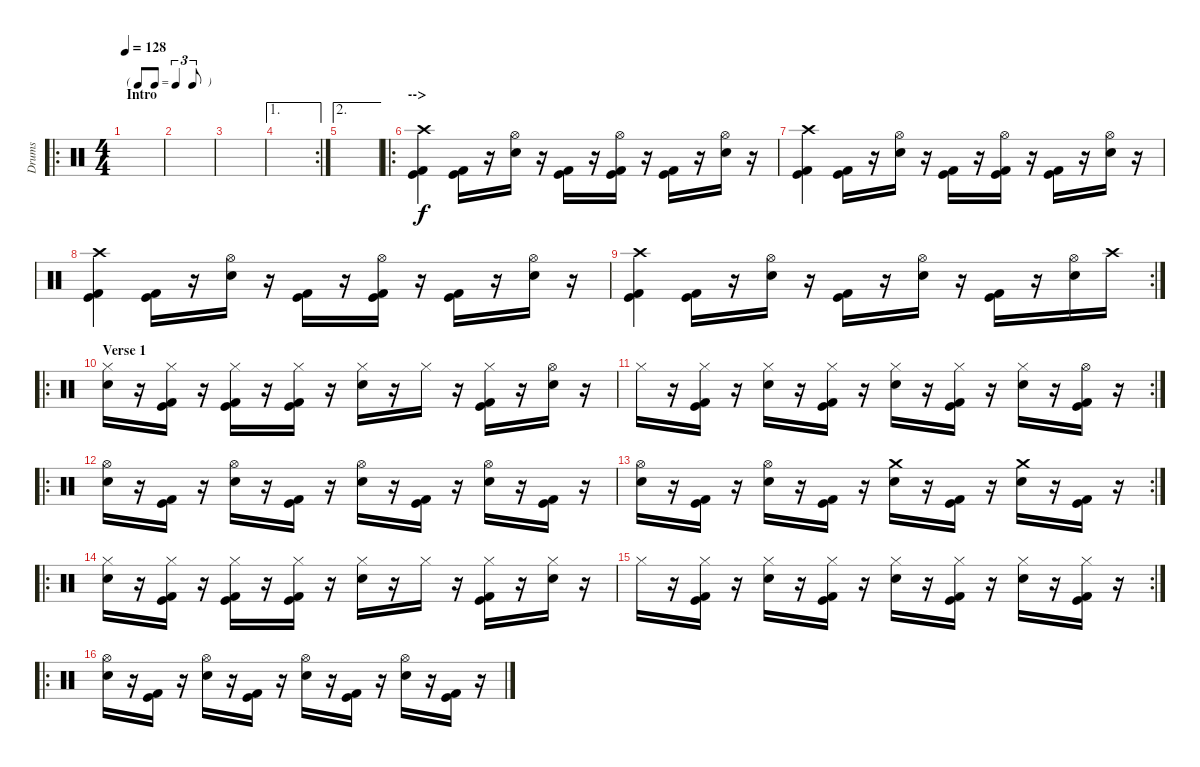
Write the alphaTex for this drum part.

\track ("Drums" "Drums") {instrument percussion}
\staff {score}
\articulation defaults
\ro
\ts (4 4)
\tf triplet8th
\section ("" "Intro")
\tempo 128
\clef neutral
\ks c
|
|
|
\ae 1
\rc 2
|
\ae 2
|
\ro
\section ("" "-->")
("Crash high (hit)" "Kick (hit)" "Kick (hit) 2").4 ("Kick (hit)" "Kick (hit) 2").16 r.16 ("Hi-Hat (open)" "Electric Snare (hit)").16 r.16 ("Kick (hit) 2" "Kick (hit)").16 r.16 ("Hi-Hat (open)" "Kick (hit)" "Kick (hit) 2").16 r.16 ("Kick (hit)" "Kick (hit) 2").16 r.16 ("Hi-Hat (open)" "Electric Snare (hit)").16 r.16 |
("Crash high (hit)" "Kick (hit)" "Kick (hit) 2").4 ("Kick (hit)" "Kick (hit) 2").16 r.16 ("Hi-Hat (open)" "Electric Snare (hit)").16 r.16 ("Kick (hit) 2" "Kick (hit)").16 r.16 ("Hi-Hat (open)" "Kick (hit)" "Kick (hit) 2").16 r.16 ("Kick (hit)" "Kick (hit) 2").16 r.16 ("Hi-Hat (open)" "Electric Snare (hit)").16 r.16 |
("Crash high (hit)" "Kick (hit)" "Kick (hit) 2").4 ("Kick (hit)" "Kick (hit) 2").16 r.16 ("Hi-Hat (open)" "Electric Snare (hit)").16 r.16 ("Kick (hit) 2" "Kick (hit)").16 r.16 ("Hi-Hat (open)" "Kick (hit)" "Kick (hit) 2").16 r.16 ("Kick (hit)" "Kick (hit) 2").16 r.16 ("Hi-Hat (open)" "Electric Snare (hit)").16 r.16 |
\rc 2
("Crash high (hit)" "Kick (hit)" "Kick (hit) 2").4 ("Kick (hit)" "Kick (hit) 2").16 r.16 ("Hi-Hat (open)" "Electric Snare (hit)").16 r.16 ("Kick (hit) 2" "Kick (hit)").16 r.16 ("Hi-Hat (open)" "Electric Snare (hit)").16 r.16 ("Kick (hit)" "Kick (hit) 2").16 r.16 ("Hi-Hat (open)" "Electric Snare (hit)").16 "Crash high (hit)".16 |
\ro
\section ("" "Verse 1")
("Hi-Hat (closed)" "Electric Snare (hit)").16 r.16 ("Hi-Hat (closed)" "Kick (hit) 2" "Kick (hit)").16 r.16 ("Hi-Hat (closed)" "Kick (hit)" "Kick (hit) 2").16 r.16 ("Hi-Hat (closed)" "Kick (hit)" "Kick (hit) 2").16 r.16 ("Hi-Hat (closed)" "Electric Snare (hit)").16 r.16 "Hi-Hat (closed)".16 r.16 ("Hi-Hat (closed)" "Kick (hit)" "Kick (hit) 2").16 r.16 ("Hi-Hat (open)" "Electric Snare (hit)").16 r.16 |
\rc 2 "Hi-Hat (closed)".16
r.16 ("Hi-Hat (closed)" "Kick (hit)" "Kick (hit) 2").16 r.16 ("Hi-Hat (closed)" "Electric Snare (hit)").16 r.16 ("Hi-Hat (closed)" "Kick (hit)" "Kick (hit) 2").16 r.16 ("Hi-Hat (closed)" "Electric Snare (hit)").16 r.16 ("Hi-Hat (closed)" "Kick (hit)" "Kick (hit) 2").16 r.16 ("Hi-Hat (closed)" "Electric Snare (hit)").16 r.16 ("Hi-Hat (open)" "Kick (hit)" "Kick (hit) 2").16 r.16 |
\ro
("Hi-Hat (open)" "Electric Snare (hit)").16 r.16 ("Kick (hit)" "Kick (hit) 2").16 r.16 ("Hi-Hat (open)" "Electric Snare (hit)").16 r.16 ("Kick (hit)" "Kick (hit) 2").16 r.16 ("Hi-Hat (open)" "Electric Snare (hit)").16 r.16 ("Kick (hit)" "Kick (hit) 2").16 r.16 ("Hi-Hat (open)" "Electric Snare (hit)").16 r.16 ("Kick (hit)" "Kick (hit) 2").16 r.16 |
\rc 2
("Hi-Hat (open)" "Electric Snare (hit)").16 r.16 ("Kick (hit)" "Kick (hit) 2").16 r.16 ("Hi-Hat (open)" "Electric Snare (hit)").16 r.16 ("Kick (hit)" "Kick (hit) 2").16 r.16 ("Crash medium (hit)" "Electric Snare (hit)").16 r.16 ("Kick (hit)" "Kick (hit) 2").16 r.16 ("Crash medium (hit)" "Electric Snare (hit)").16 r.16 ("Kick (hit)" "Kick (hit) 2").16 r.16 |
\ro
("Hi-Hat (closed)" "Electric Snare (hit)").16 r.16 ("Hi-Hat (closed)" "Kick (hit) 2" "Kick (hit)").16 r.16 ("Hi-Hat (closed)" "Kick (hit)" "Kick (hit) 2").16 r.16 ("Hi-Hat (closed)" "Kick (hit)" "Kick (hit) 2").16 r.16 ("Hi-Hat (closed)" "Electric Snare (hit)").16 r.16 "Hi-Hat (closed)".16 r.16 ("Hi-Hat (closed)" "Kick (hit)" "Kick (hit) 2").16 r.16 ("Hi-Hat (closed)" "Electric Snare (hit)").16 r.16 |
\rc 2 "Hi-Hat (closed)".16
r.16 ("Hi-Hat (closed)" "Kick (hit)" "Kick (hit) 2").16 r.16 ("Hi-Hat (closed)" "Electric Snare (hit)").16 r.16 ("Hi-Hat (closed)" "Kick (hit)" "Kick (hit) 2").16 r.16 ("Hi-Hat (closed)" "Electric Snare (hit)").16 r.16 ("Hi-Hat (closed)" "Kick (hit)" "Kick (hit) 2").16 r.16 ("Hi-Hat (closed)" "Electric Snare (hit)").16 r.16 ("Hi-Hat (closed)" "Kick (hit)" "Kick (hit) 2").16 r.16 |
\ro
("Hi-Hat (open)" "Electric Snare (hit)").16 r.16 ("Kick (hit)" "Kick (hit) 2").16 r.16 ("Hi-Hat (open)" "Electric Snare (hit)").16 r.16 ("Kick (hit)" "Kick (hit) 2").16 r.16 ("Hi-Hat (open)" "Electric Snare (hit)").16 r.16 ("Kick (hit)" "Kick (hit) 2").16 r.16 ("Hi-Hat (open)" "Electric Snare (hit)").16 r.16 ("Kick (hit)" "Kick (hit) 2").16 r.16
